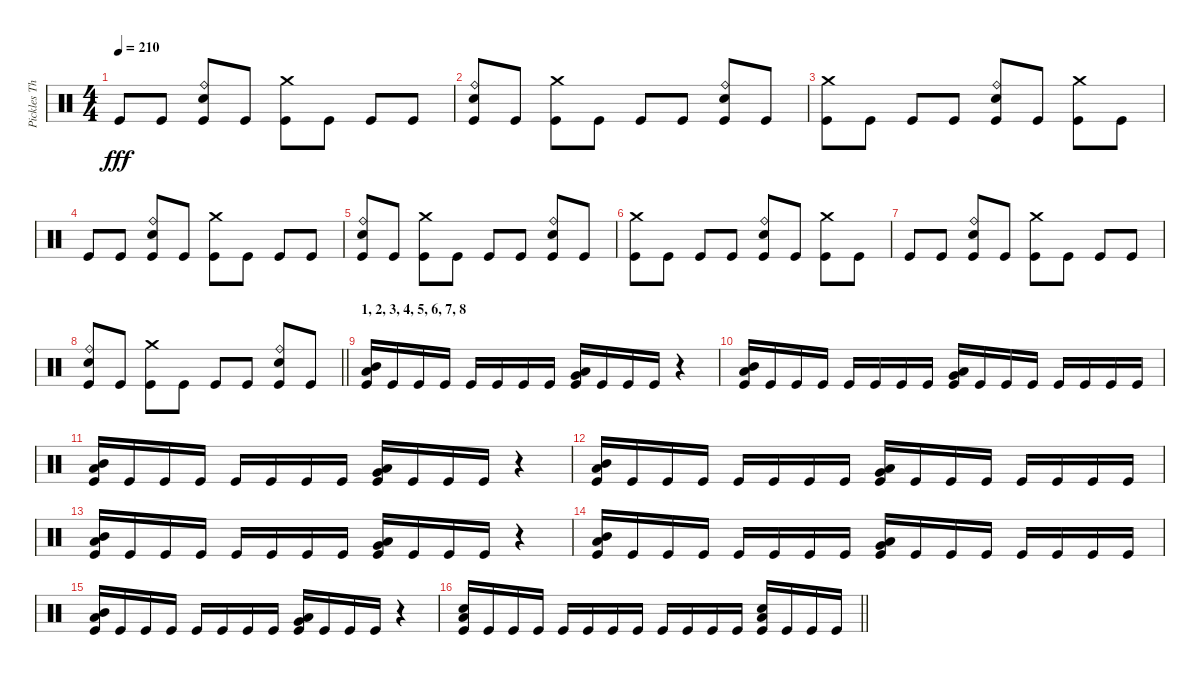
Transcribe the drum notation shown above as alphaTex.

\track ("Pickles The Drummer (Drums)" "Pickles Th") {instrument percussion}
\staff {score}
\articulation defaults
\ts (4 4)
\tempo 210
\clef neutral
\ks c "Kick (hit)".8{dy fff} "Kick (hit)".8
("Ride (bell)" "Snare (hit) 2" "Kick (hit)").8 "Kick (hit)".8 ("Crash medium (hit)" "Kick (hit)").8 "Kick (hit)".8 "Kick (hit)".8 "Kick (hit)".8 |
("Ride (bell)" "Snare (hit) 2" "Kick (hit)").8 "Kick (hit)".8 ("Crash medium (hit)" "Kick (hit)").8 "Kick (hit)".8 "Kick (hit)".8 "Kick (hit)".8 ("Ride (bell)" "Snare (hit) 2" "Kick (hit)").8 "Kick (hit)".8 |
("Crash medium (hit)" "Kick (hit)").8 "Kick (hit)".8 "Kick (hit)".8 "Kick (hit)".8 ("Ride (bell)" "Snare (hit) 2" "Kick (hit)").8 "Kick (hit)".8 ("Crash medium (hit)" "Kick (hit)").8 "Kick (hit)".8 |
"Kick (hit)".8 "Kick (hit)".8 ("Ride (bell)" "Snare (hit) 2" "Kick (hit)").8 "Kick (hit)".8 ("Crash medium (hit)" "Kick (hit)").8 "Kick (hit)".8 "Kick (hit)".8 "Kick (hit)".8 |
("Ride (bell)" "Snare (hit) 2" "Kick (hit)").8 "Kick (hit)".8 ("Crash medium (hit)" "Kick (hit)").8 "Kick (hit)".8 "Kick (hit)".8 "Kick (hit)".8 ("Ride (bell)" "Snare (hit) 2" "Kick (hit)").8 "Kick (hit)".8 |
("Crash medium (hit)" "Kick (hit)").8 "Kick (hit)".8 "Kick (hit)".8 "Kick (hit)".8 ("Ride (bell)" "Snare (hit) 2" "Kick (hit)").8 "Kick (hit)".8 ("Crash medium (hit)" "Kick (hit)").8 "Kick (hit)".8 |
"Kick (hit)".8 "Kick (hit)".8 ("Ride (bell)" "Snare (hit) 2" "Kick (hit)").8 "Kick (hit)".8 ("Crash medium (hit)" "Kick (hit)").8 "Kick (hit)".8 "Kick (hit)".8 "Kick (hit)".8 |
\barLineRight lightlight
("Ride (bell)" "Snare (hit) 2" "Kick (hit)").8 "Kick (hit)".8 ("Crash medium (hit)" "Kick (hit)").8 "Kick (hit)".8 "Kick (hit)".8 "Kick (hit)".8 ("Ride (bell)" "Snare (hit) 2" "Kick (hit)").8 "Kick (hit)".8 |
\section ("" "1, 2, 3, 4, 5, 6, 7, 8")
("Mid Tom (hit)" "Low Tom (hit)" "Kick (hit)").16 "Kick (hit)".16 "Kick (hit)".16 "Kick (hit)".16 "Kick (hit)".16 "Kick (hit)".16 "Kick (hit)".16 "Kick (hit)".16 ("Very Low Tom (hit)" "Low Floor Tom (hit)" "Kick (hit)").16 "Kick (hit)".16 "Kick (hit)".16 "Kick (hit)".16 r.4 |
("Mid Tom (hit)" "Low Tom (hit)" "Kick (hit)").16 "Kick (hit)".16 "Kick (hit)".16 "Kick (hit)".16 "Kick (hit)".16 "Kick (hit)".16 "Kick (hit)".16 "Kick (hit)".16 ("Very Low Tom (hit)" "Low Floor Tom (hit)" "Kick (hit)").16 "Kick (hit)".16 "Kick (hit)".16 "Kick (hit)".16 "Kick (hit)".16 "Kick (hit)".16 "Kick (hit)".16 "Kick (hit)".16 |
("Mid Tom (hit)" "Low Tom (hit)" "Kick (hit)").16 "Kick (hit)".16 "Kick (hit)".16 "Kick (hit)".16 "Kick (hit)".16 "Kick (hit)".16 "Kick (hit)".16 "Kick (hit)".16 ("Very Low Tom (hit)" "Low Floor Tom (hit)" "Kick (hit)").16 "Kick (hit)".16 "Kick (hit)".16 "Kick (hit)".16 r.4 |
("Mid Tom (hit)" "Low Tom (hit)" "Kick (hit)").16 "Kick (hit)".16 "Kick (hit)".16 "Kick (hit)".16 "Kick (hit)".16 "Kick (hit)".16 "Kick (hit)".16 "Kick (hit)".16 ("Very Low Tom (hit)" "Low Floor Tom (hit)" "Kick (hit)").16 "Kick (hit)".16 "Kick (hit)".16 "Kick (hit)".16 "Kick (hit)".16 "Kick (hit)".16 "Kick (hit)".16 "Kick (hit)".16 |
("Mid Tom (hit)" "Low Tom (hit)" "Kick (hit)").16 "Kick (hit)".16 "Kick (hit)".16 "Kick (hit)".16 "Kick (hit)".16 "Kick (hit)".16 "Kick (hit)".16 "Kick (hit)".16 ("Very Low Tom (hit)" "Low Floor Tom (hit)" "Kick (hit)").16 "Kick (hit)".16 "Kick (hit)".16 "Kick (hit)".16 r.4 |
("Mid Tom (hit)" "Low Tom (hit)" "Kick (hit)").16 "Kick (hit)".16 "Kick (hit)".16 "Kick (hit)".16 "Kick (hit)".16 "Kick (hit)".16 "Kick (hit)".16 "Kick (hit)".16 ("Very Low Tom (hit)" "Low Floor Tom (hit)" "Kick (hit)").16 "Kick (hit)".16 "Kick (hit)".16 "Kick (hit)".16 "Kick (hit)".16 "Kick (hit)".16 "Kick (hit)".16 "Kick (hit)".16 |
("Mid Tom (hit)" "Low Tom (hit)" "Kick (hit)").16 "Kick (hit)".16 "Kick (hit)".16 "Kick (hit)".16 "Kick (hit)".16 "Kick (hit)".16 "Kick (hit)".16 "Kick (hit)".16 ("Very Low Tom (hit)" "Low Floor Tom (hit)" "Kick (hit)").16 "Kick (hit)".16 "Kick (hit)".16 "Kick (hit)".16 r.4 |
\barLineRight lightlight
("Snare (hit) 2" "Low Floor Tom (hit)" "Kick (hit)").16 "Kick (hit)".16 "Kick (hit)".16 "Kick (hit)".16 "Kick (hit)".16 "Kick (hit)".16 "Kick (hit)".16 "Kick (hit)".16 "Kick (hit)".16 "Kick (hit)".16 "Kick (hit)".16 "Kick (hit)".16 ("Snare (hit) 2" "Low Floor Tom (hit)" "Kick (hit)").16 "Kick (hit)".16 "Kick (hit)".16 "Kick (hit)".16
